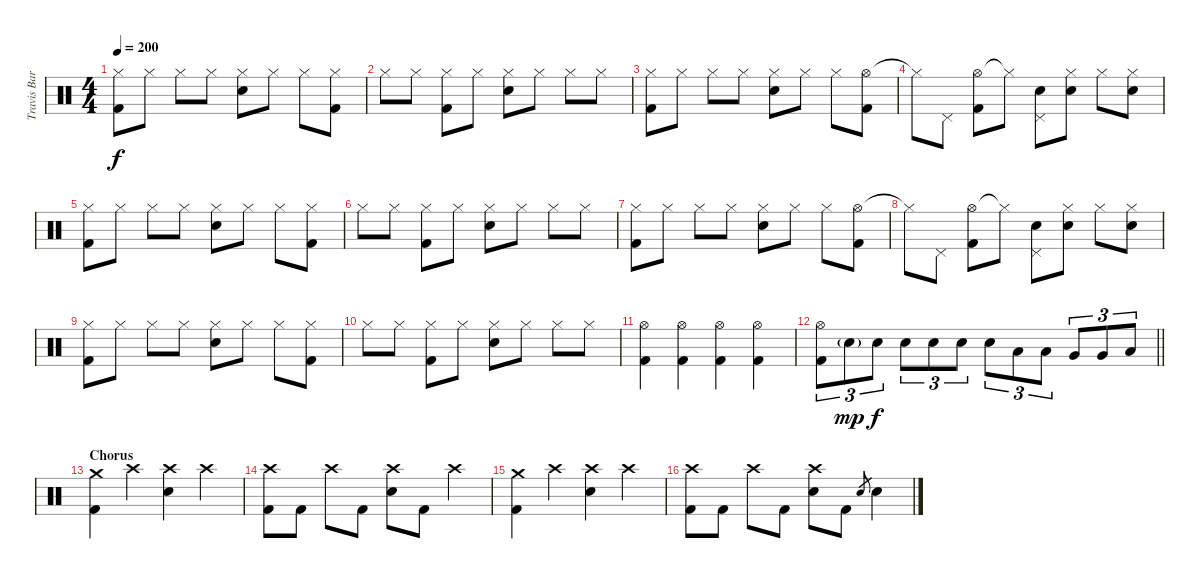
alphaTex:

\track ("Travis Barker - Drums" "Travis Bar") {instrument percussion}
\staff {score}
\articulation defaults
\ts (4 4)
\tempo 200
\clef neutral
\ks c
("Hi-Hat (closed)" "Kick (hit) 2").8{dy f} "Hi-Hat (closed)".8 "Hi-Hat (closed)".8 "Hi-Hat (closed)".8 ("Hi-Hat (closed)" "Electric Snare (hit)").8 "Hi-Hat (closed)".8 "Hi-Hat (closed)".8 ("Hi-Hat (closed)" "Kick (hit) 2").8 |
"Hi-Hat (closed)".8 "Hi-Hat (closed)".8 ("Hi-Hat (closed)" "Kick (hit) 2").8 "Hi-Hat (closed)".8 ("Hi-Hat (closed)" "Electric Snare (hit)").8 "Hi-Hat (closed)".8 "Hi-Hat (closed)".8 "Hi-Hat (closed)".8 |
("Hi-Hat (closed)" "Kick (hit) 2").8 "Hi-Hat (closed)".8 "Hi-Hat (closed)".8 "Hi-Hat (closed)".8 ("Hi-Hat (closed)" "Electric Snare (hit)").8 "Hi-Hat (closed)".8 "Hi-Hat (closed)".8 ("Hi-Hat (open)" "Kick (hit) 2").8 |
"Hi-Hat (closed)"{t}.8 "Pedal Hi-Hat (hit)".8 ("Hi-Hat (open)" "Kick (hit) 2").8 "Hi-Hat (closed)"{t}.8 ("Pedal Hi-Hat (hit)" "Electric Snare (hit)").8 ("Hi-Hat (closed)" "Electric Snare (hit)").8 "Hi-Hat (closed)".8 ("Hi-Hat (closed)" "Electric Snare (hit)").8 |
("Hi-Hat (closed)" "Kick (hit) 2").8 "Hi-Hat (closed)".8 "Hi-Hat (closed)".8 "Hi-Hat (closed)".8 ("Hi-Hat (closed)" "Electric Snare (hit)").8 "Hi-Hat (closed)".8 "Hi-Hat (closed)".8 ("Hi-Hat (closed)" "Kick (hit) 2").8 |
"Hi-Hat (closed)".8 "Hi-Hat (closed)".8 ("Hi-Hat (closed)" "Kick (hit) 2").8 "Hi-Hat (closed)".8 ("Hi-Hat (closed)" "Electric Snare (hit)").8 "Hi-Hat (closed)".8 "Hi-Hat (closed)".8 "Hi-Hat (closed)".8 |
("Hi-Hat (closed)" "Kick (hit) 2").8 "Hi-Hat (closed)".8 "Hi-Hat (closed)".8 "Hi-Hat (closed)".8 ("Hi-Hat (closed)" "Electric Snare (hit)").8 "Hi-Hat (closed)".8 "Hi-Hat (closed)".8 ("Hi-Hat (open)" "Kick (hit) 2").8 |
"Hi-Hat (closed)"{t}.8 "Pedal Hi-Hat (hit)".8 ("Hi-Hat (open)" "Kick (hit) 2").8 "Hi-Hat (closed)"{t}.8 ("Pedal Hi-Hat (hit)" "Electric Snare (hit)").8 ("Hi-Hat (closed)" "Electric Snare (hit)").8 "Hi-Hat (closed)".8 ("Hi-Hat (closed)" "Electric Snare (hit)").8 |
("Hi-Hat (closed)" "Kick (hit) 2").8 "Hi-Hat (closed)".8 "Hi-Hat (closed)".8 "Hi-Hat (closed)".8 ("Hi-Hat (closed)" "Electric Snare (hit)").8 "Hi-Hat (closed)".8 "Hi-Hat (closed)".8 ("Hi-Hat (closed)" "Kick (hit) 2").8 |
"Hi-Hat (closed)".8 "Hi-Hat (closed)".8 ("Hi-Hat (closed)" "Kick (hit) 2").8 "Hi-Hat (closed)".8 ("Hi-Hat (closed)" "Electric Snare (hit)").8 "Hi-Hat (closed)".8 "Hi-Hat (closed)".8 "Hi-Hat (closed)".8 |
("Hi-Hat (open)" "Kick (hit) 2").4 ("Hi-Hat (open)" "Kick (hit) 2").4 ("Hi-Hat (open)" "Kick (hit) 2").4 ("Hi-Hat (open)" "Kick (hit) 2").4 |
\barLineRight lightlight
("Hi-Hat (open)" "Kick (hit) 2").8{tu (3 2)} "Electric Snare (hit)"{g}.8{tu (3 2) dy mp} "Electric Snare (hit)".8{tu (3 2) dy f} "Electric Snare (hit)".8{tu (3 2)} "Electric Snare (hit)".8{tu (3 2)} "Electric Snare (hit)".8{tu (3 2)} "Electric Snare (hit)".8{tu (3 2)} "Low Tom (hit)".8{tu (3 2)} "Low Tom (hit)".8{tu (3 2)} "Very Low Tom (hit)".8{tu (3 2)} "Very Low Tom (hit)".8{tu (3 2)} "Low Floor Tom (hit)".8{tu (3 2)} |
\section ("" "Chorus")
("Crash medium (hit)" "Kick (hit) 2").4 "Crash high (hit)".4 ("Crash high (hit)" "Electric Snare (hit)").4 "Crash high (hit)".4 |
("Crash high (hit)" "Kick (hit) 2").8 "Kick (hit) 2".8 "Crash high (hit)".8 "Kick (hit) 2".8 ("Crash high (hit)" "Electric Snare (hit)").8 "Kick (hit) 2".8 "Crash high (hit)".4 |
("Crash medium (hit)" "Kick (hit) 2").4 "Crash high (hit)".4 ("Crash high (hit)" "Electric Snare (hit)").4 "Crash high (hit)".4 |
("Crash high (hit)" "Kick (hit) 2").8 "Kick (hit) 2".8 "Crash high (hit)".8 "Kick (hit) 2".8 ("Crash high (hit)" "Electric Snare (hit)").8 "Kick (hit) 2".8 "Electric Snare (hit)".8{gr} "Electric Snare (hit)".4
